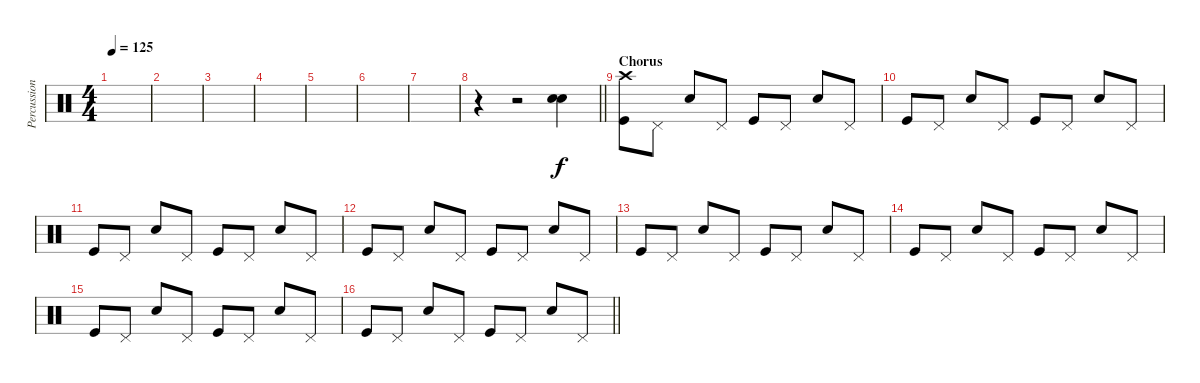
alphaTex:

\track ("Percussion" "Percussion") {instrument percussion}
\staff {score}
\articulation defaults
\ts (4 4)
\tempo 125
\clef neutral
\ks c
|
|
|
|
|
|
|
\barLineRight lightlight
r.4 r.2 ("Electric Snare (hit)" "Snare (hit) 2").4 |
\section ("" "Chorus")
("Crash high (hit)" "Kick (hit)").8 "Pedal Hi-Hat (hit)".8 "Electric Snare (hit)".8 "Pedal Hi-Hat (hit)".8 "Kick (hit)".8 "Pedal Hi-Hat (hit)".8 "Electric Snare (hit)".8 "Pedal Hi-Hat (hit)".8 |
"Kick (hit)".8 "Pedal Hi-Hat (hit)".8 "Electric Snare (hit)".8 "Pedal Hi-Hat (hit)".8 "Kick (hit)".8 "Pedal Hi-Hat (hit)".8 "Electric Snare (hit)".8 "Pedal Hi-Hat (hit)".8 |
"Kick (hit)".8 "Pedal Hi-Hat (hit)".8 "Electric Snare (hit)".8 "Pedal Hi-Hat (hit)".8 "Kick (hit)".8 "Pedal Hi-Hat (hit)".8 "Electric Snare (hit)".8 "Pedal Hi-Hat (hit)".8 |
"Kick (hit)".8 "Pedal Hi-Hat (hit)".8 "Electric Snare (hit)".8 "Pedal Hi-Hat (hit)".8 "Kick (hit)".8 "Pedal Hi-Hat (hit)".8 "Electric Snare (hit)".8 "Pedal Hi-Hat (hit)".8 |
"Kick (hit)".8 "Pedal Hi-Hat (hit)".8 "Electric Snare (hit)".8 "Pedal Hi-Hat (hit)".8 "Kick (hit)".8 "Pedal Hi-Hat (hit)".8 "Electric Snare (hit)".8 "Pedal Hi-Hat (hit)".8 |
"Kick (hit)".8 "Pedal Hi-Hat (hit)".8 "Electric Snare (hit)".8 "Pedal Hi-Hat (hit)".8 "Kick (hit)".8 "Pedal Hi-Hat (hit)".8 "Electric Snare (hit)".8 "Pedal Hi-Hat (hit)".8 |
"Kick (hit)".8 "Pedal Hi-Hat (hit)".8 "Electric Snare (hit)".8 "Pedal Hi-Hat (hit)".8 "Kick (hit)".8 "Pedal Hi-Hat (hit)".8 "Electric Snare (hit)".8 "Pedal Hi-Hat (hit)".8 |
\barLineRight lightlight "Kick (hit)".8 "Pedal Hi-Hat (hit)".8 "Electric Snare (hit)".8 "Pedal Hi-Hat (hit)".8 "Kick (hit)".8 "Pedal Hi-Hat (hit)".8 "Electric Snare (hit)".8 "Pedal Hi-Hat (hit)".8
